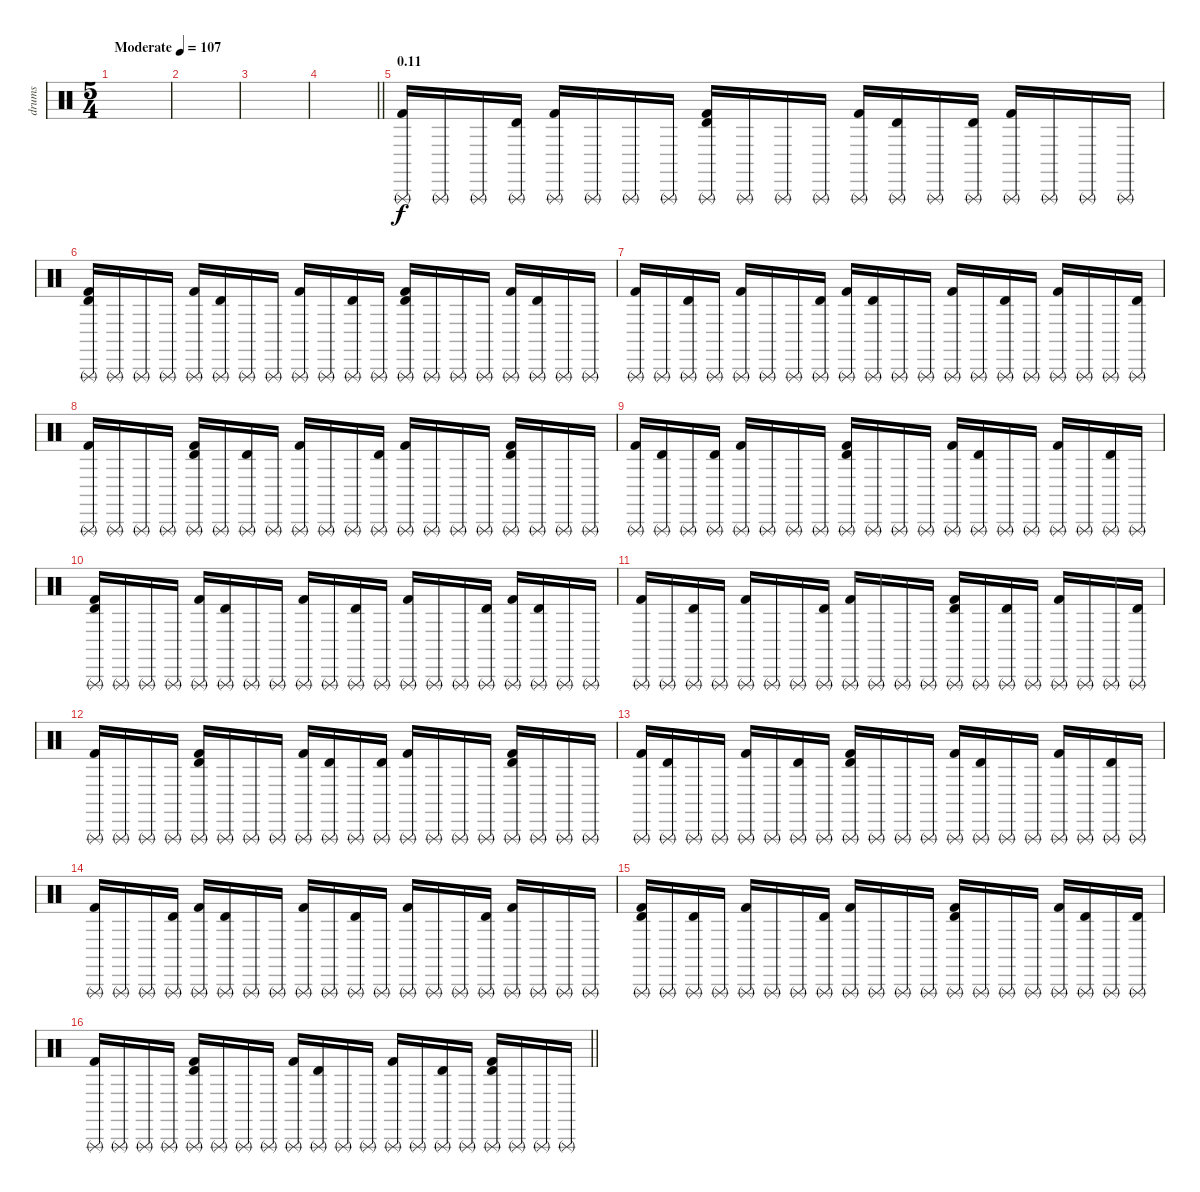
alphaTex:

\track ("drums" "drums") {instrument percussion}
\staff {score}
\articulation defaults
\ts (5 4)
\tempo (107 "Moderate")
\clef neutral
\ks c
|
|
|
\barLineRight lightlight
|
\section ("" "0.11")
("Triangle (rnute)" "Kick (hit) 2").16 "Triangle (rnute)".16 "Triangle (rnute)".16 ("Triangle (rnute)" "Timbale high (hit)").16 ("Triangle (rnute)" "Kick (hit) 2").16 "Triangle (rnute)".16 "Triangle (rnute)".16 "Triangle (rnute)".16 ("Triangle (rnute)" "Timbale high (hit)" "Kick (hit) 2").16 "Triangle (rnute)".16 "Triangle (rnute)".16 "Triangle (rnute)".16 ("Triangle (rnute)" "Kick (hit) 2").16 ("Triangle (rnute)" "Timbale high (hit)").16 "Triangle (rnute)".16 ("Triangle (rnute)" "Timbale high (hit)").16 ("Triangle (rnute)" "Kick (hit) 2").16 "Triangle (rnute)".16 "Triangle (rnute)".16 "Triangle (rnute)".16 |
("Triangle (rnute)" "Timbale high (hit)" "Kick (hit) 2").16 "Triangle (rnute)".16 "Triangle (rnute)".16 "Triangle (rnute)".16 ("Triangle (rnute)" "Kick (hit) 2").16 ("Triangle (rnute)" "Timbale high (hit)").16 "Triangle (rnute)".16 "Triangle (rnute)".16 ("Triangle (rnute)" "Kick (hit) 2").16 "Triangle (rnute)".16 ("Triangle (rnute)" "Timbale high (hit)").16 "Triangle (rnute)".16 ("Triangle (rnute)" "Timbale high (hit)" "Kick (hit) 2").16 "Triangle (rnute)".16 "Triangle (rnute)".16 "Triangle (rnute)".16 ("Triangle (rnute)" "Kick (hit) 2").16 ("Triangle (rnute)" "Timbale high (hit)").16 "Triangle (rnute)".16 "Triangle (rnute)".16 |
("Triangle (rnute)" "Kick (hit) 2").16 "Triangle (rnute)".16 ("Triangle (rnute)" "Timbale high (hit)").16 "Triangle (rnute)".16 ("Triangle (rnute)" "Kick (hit) 2").16 "Triangle (rnute)".16 "Triangle (rnute)".16 ("Triangle (rnute)" "Timbale high (hit)").16 ("Triangle (rnute)" "Kick (hit) 2").16 ("Triangle (rnute)" "Timbale high (hit)").16 "Triangle (rnute)".16 "Triangle (rnute)".16 ("Triangle (rnute)" "Kick (hit) 2").16 "Triangle (rnute)".16 ("Triangle (rnute)" "Timbale high (hit)").16 "Triangle (rnute)".16 ("Triangle (rnute)" "Kick (hit) 2").16 "Triangle (rnute)".16 "Triangle (rnute)".16 ("Triangle (rnute)" "Timbale high (hit)").16 |
("Triangle (rnute)" "Kick (hit) 2").16 "Triangle (rnute)".16 "Triangle (rnute)".16 "Triangle (rnute)".16 ("Triangle (rnute)" "Timbale high (hit)" "Kick (hit) 2").16 "Triangle (rnute)".16 ("Triangle (rnute)" "Timbale high (hit)").16 "Triangle (rnute)".16 ("Triangle (rnute)" "Kick (hit) 2").16 "Triangle (rnute)".16 "Triangle (rnute)".16 ("Triangle (rnute)" "Timbale high (hit)").16 ("Triangle (rnute)" "Kick (hit) 2").16 "Triangle (rnute)".16 "Triangle (rnute)".16 "Triangle (rnute)".16 ("Triangle (rnute)" "Timbale high (hit)" "Kick (hit) 2").16 "Triangle (rnute)".16 "Triangle (rnute)".16 "Triangle (rnute)".16 |
("Triangle (rnute)" "Kick (hit) 2").16 ("Triangle (rnute)" "Timbale high (hit)").16 "Triangle (rnute)".16 ("Triangle (rnute)" "Timbale high (hit)").16 ("Triangle (rnute)" "Kick (hit) 2").16 "Triangle (rnute)".16 "Triangle (rnute)".16 "Triangle (rnute)".16 ("Triangle (rnute)" "Timbale high (hit)" "Kick (hit) 2").16 "Triangle (rnute)".16 "Triangle (rnute)".16 "Triangle (rnute)".16 ("Triangle (rnute)" "Kick (hit) 2").16 ("Triangle (rnute)" "Timbale high (hit)").16 "Triangle (rnute)".16 "Triangle (rnute)".16 ("Triangle (rnute)" "Kick (hit) 2").16 "Triangle (rnute)".16 ("Triangle (rnute)" "Timbale high (hit)").16 "Triangle (rnute)".16 |
("Triangle (rnute)" "Timbale high (hit)" "Kick (hit) 2").16 "Triangle (rnute)".16 "Triangle (rnute)".16 "Triangle (rnute)".16 ("Triangle (rnute)" "Kick (hit) 2").16 ("Triangle (rnute)" "Timbale high (hit)").16 "Triangle (rnute)".16 "Triangle (rnute)".16 ("Triangle (rnute)" "Kick (hit) 2").16 "Triangle (rnute)".16 ("Triangle (rnute)" "Timbale high (hit)").16 "Triangle (rnute)".16 ("Triangle (rnute)" "Kick (hit) 2").16 "Triangle (rnute)".16 "Triangle (rnute)".16 ("Triangle (rnute)" "Timbale high (hit)").16 ("Triangle (rnute)" "Kick (hit) 2").16 ("Triangle (rnute)" "Timbale high (hit)").16 "Triangle (rnute)".16 "Triangle (rnute)".16 |
("Triangle (rnute)" "Kick (hit) 2").16 "Triangle (rnute)".16 ("Triangle (rnute)" "Timbale high (hit)").16 "Triangle (rnute)".16 ("Triangle (rnute)" "Kick (hit) 2").16 "Triangle (rnute)".16 "Triangle (rnute)".16 ("Triangle (rnute)" "Timbale high (hit)").16 ("Triangle (rnute)" "Kick (hit) 2").16 "Triangle (rnute)".16 "Triangle (rnute)".16 "Triangle (rnute)".16 ("Triangle (rnute)" "Timbale high (hit)" "Kick (hit) 2").16 "Triangle (rnute)".16 ("Triangle (rnute)" "Timbale high (hit)").16 "Triangle (rnute)".16 ("Triangle (rnute)" "Kick (hit) 2").16 "Triangle (rnute)".16 "Triangle (rnute)".16 ("Triangle (rnute)" "Timbale high (hit)").16 |
("Triangle (rnute)" "Kick (hit) 2").16 "Triangle (rnute)".16 "Triangle (rnute)".16 "Triangle (rnute)".16 ("Triangle (rnute)" "Timbale high (hit)" "Kick (hit) 2").16 "Triangle (rnute)".16 "Triangle (rnute)".16 "Triangle (rnute)".16 ("Triangle (rnute)" "Kick (hit) 2").16 ("Triangle (rnute)" "Timbale high (hit)").16 "Triangle (rnute)".16 ("Triangle (rnute)" "Timbale high (hit)").16 ("Triangle (rnute)" "Kick (hit) 2").16 "Triangle (rnute)".16 "Triangle (rnute)".16 "Triangle (rnute)".16 ("Triangle (rnute)" "Timbale high (hit)" "Kick (hit) 2").16 "Triangle (rnute)".16 "Triangle (rnute)".16 "Triangle (rnute)".16 |
("Triangle (rnute)" "Kick (hit) 2").16 ("Triangle (rnute)" "Timbale high (hit)").16 "Triangle (rnute)".16 "Triangle (rnute)".16 ("Triangle (rnute)" "Kick (hit) 2").16 "Triangle (rnute)".16 ("Triangle (rnute)" "Timbale high (hit)").16 "Triangle (rnute)".16 ("Triangle (rnute)" "Timbale high (hit)" "Kick (hit) 2").16 "Triangle (rnute)".16 "Triangle (rnute)".16 "Triangle (rnute)".16 ("Triangle (rnute)" "Kick (hit) 2").16 ("Triangle (rnute)" "Timbale high (hit)").16 "Triangle (rnute)".16 "Triangle (rnute)".16 ("Triangle (rnute)" "Kick (hit) 2").16 "Triangle (rnute)".16 ("Triangle (rnute)" "Timbale high (hit)").16 "Triangle (rnute)".16 |
("Triangle (rnute)" "Kick (hit) 2").16 "Triangle (rnute)".16 "Triangle (rnute)".16 ("Triangle (rnute)" "Timbale high (hit)").16 ("Triangle (rnute)" "Kick (hit) 2").16 ("Triangle (rnute)" "Timbale high (hit)").16 "Triangle (rnute)".16 "Triangle (rnute)".16 ("Triangle (rnute)" "Kick (hit) 2").16 "Triangle (rnute)".16 ("Triangle (rnute)" "Timbale high (hit)").16 "Triangle (rnute)".16 ("Triangle (rnute)" "Kick (hit) 2").16 "Triangle (rnute)".16 "Triangle (rnute)".16 ("Triangle (rnute)" "Timbale high (hit)").16 ("Triangle (rnute)" "Kick (hit) 2").16 "Triangle (rnute)".16 "Triangle (rnute)".16 "Triangle (rnute)".16 |
("Triangle (rnute)" "Timbale high (hit)" "Kick (hit) 2").16 "Triangle (rnute)".16 ("Triangle (rnute)" "Timbale high (hit)").16 "Triangle (rnute)".16 ("Triangle (rnute)" "Kick (hit) 2").16 "Triangle (rnute)".16 "Triangle (rnute)".16 ("Triangle (rnute)" "Timbale high (hit)").16 ("Triangle (rnute)" "Kick (hit) 2").16 "Triangle (rnute)".16 "Triangle (rnute)".16 "Triangle (rnute)".16 ("Triangle (rnute)" "Timbale high (hit)" "Kick (hit) 2").16 "Triangle (rnute)".16 "Triangle (rnute)".16 "Triangle (rnute)".16 ("Triangle (rnute)" "Kick (hit) 2").16 ("Triangle (rnute)" "Timbale high (hit)").16 "Triangle (rnute)".16 ("Triangle (rnute)" "Timbale high (hit)").16 |
\barLineRight lightlight
("Triangle (rnute)" "Kick (hit) 2").16 "Triangle (rnute)".16 "Triangle (rnute)".16 "Triangle (rnute)".16 ("Triangle (rnute)" "Timbale high (hit)" "Kick (hit) 2").16 "Triangle (rnute)".16 "Triangle (rnute)".16 "Triangle (rnute)".16 ("Triangle (rnute)" "Kick (hit) 2").16 ("Triangle (rnute)" "Timbale high (hit)").16 "Triangle (rnute)".16 "Triangle (rnute)".16 ("Triangle (rnute)" "Kick (hit) 2").16 "Triangle (rnute)".16 ("Triangle (rnute)" "Timbale high (hit)").16 "Triangle (rnute)".16 ("Triangle (rnute)" "Timbale high (hit)" "Kick (hit) 2").16 "Triangle (rnute)".16 "Triangle (rnute)".16 "Triangle (rnute)".16
